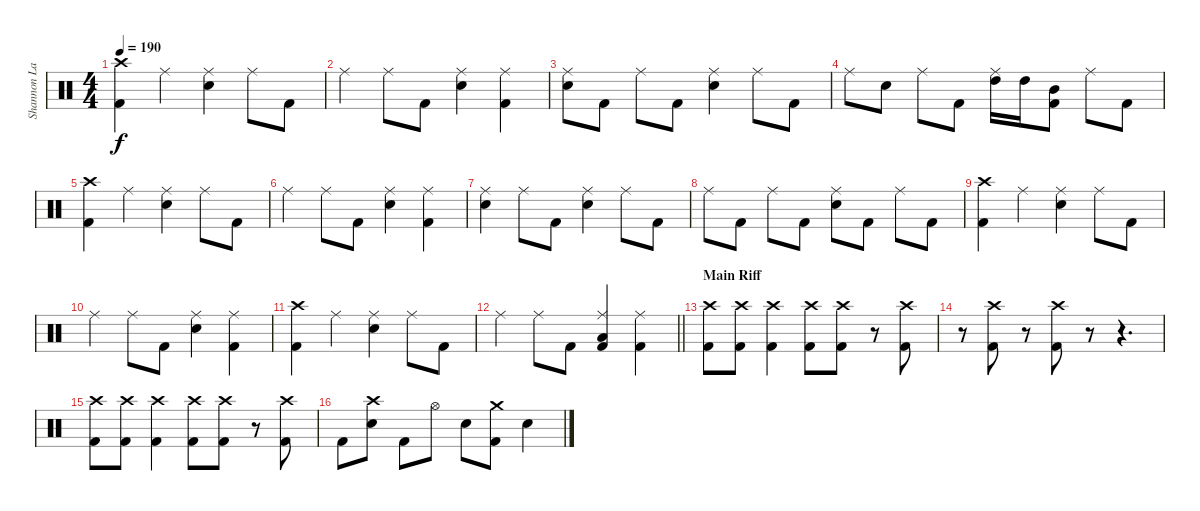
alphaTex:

\track ("Shannon Larkin" "Shannon La") {instrument percussion}
\staff {score}
\articulation defaults
\ts (4 4)
\tempo 190
\clef neutral
\ks c
("Crash high (hit)" "Kick (hit) 2").4{dy f} "Ride (middle)".4 ("Ride (middle)" "Snare (hit) 2").4 "Ride (middle)".8 "Kick (hit) 2".8 |
"Ride (middle)".4 "Ride (middle)".8 "Kick (hit) 2".8 ("Ride (middle)" "Snare (hit) 2").4 ("Ride (middle)" "Kick (hit) 2").4 |
("Ride (middle)" "Snare (hit) 2").8 "Kick (hit) 2".8 "Ride (middle)".8 "Kick (hit) 2".8 ("Ride (middle)" "Snare (hit) 2").4 "Ride (middle)".8 "Kick (hit) 2".8 |
"Ride (middle)".8 "Snare (hit) 2".8 "Ride (middle)".8 "Kick (hit) 2".8 ("Ride (middle)" "High Tom (hit)").16 "High Tom (hit)".16 ("Mid Tom (hit)" "Kick (hit) 2").8 "Ride (middle)".8 "Kick (hit) 2".8 |
("Crash high (hit)" "Kick (hit) 2").4 "Ride (middle)".4 ("Ride (middle)" "Snare (hit) 2").4 "Ride (middle)".8 "Kick (hit) 2".8 |
"Ride (middle)".4 "Ride (middle)".8 "Kick (hit) 2".8 ("Ride (middle)" "Snare (hit) 2").4 ("Ride (middle)" "Kick (hit) 2").4 |
("Ride (middle)" "Snare (hit) 2").4 "Ride (middle)".8 "Kick (hit) 2".8 ("Ride (middle)" "Snare (hit) 2").4 "Ride (middle)".8 "Kick (hit) 2".8 |
"Ride (middle)".8 "Kick (hit) 2".8 "Ride (middle)".8 "Kick (hit) 2".8 ("Ride (middle)" "Snare (hit) 2").8 "Kick (hit) 2".8 "Ride (middle)".8 "Kick (hit) 2".8 |
("Crash high (hit)" "Kick (hit) 2").4 "Ride (middle)".4 ("Ride (middle)" "Snare (hit) 2").4 "Ride (middle)".8 "Kick (hit) 2".8 |
"Ride (middle)".4 "Ride (middle)".8 "Kick (hit) 2".8 ("Ride (middle)" "Snare (hit) 2").4 ("Ride (middle)" "Kick (hit) 2").4 |
("Crash high (hit)" "Kick (hit) 2").4 "Ride (middle)".4 ("Ride (middle)" "Snare (hit) 2").4 "Ride (middle)".8 "Kick (hit) 2".8 |
\barLineRight lightlight "Ride (middle)".4 "Ride (middle)".8 "Kick (hit) 2".8
("Ride (middle)" "Low Tom (hit)" "Kick (hit) 2").4 ("Ride (middle)" "Kick (hit) 2").4 |
\section ("" "Main Riff")
("Crash high (hit)" "Kick (hit) 2").8 ("Crash high (hit)" "Kick (hit) 2").8 ("Crash high (hit)" "Kick (hit) 2").4 ("Crash high (hit)" "Kick (hit) 2").8 ("Crash high (hit)" "Kick (hit) 2").8 r.8 ("Crash high (hit)" "Kick (hit) 2").8 |
r.8 ("Crash high (hit)" "Kick (hit) 2").8 r.8 ("Crash high (hit)" "Kick (hit) 2").8 r.8 r.4{d} |
("Crash high (hit)" "Kick (hit) 2").8 ("Crash high (hit)" "Kick (hit) 2").8 ("Crash high (hit)" "Kick (hit) 2").4 ("Crash high (hit)" "Kick (hit) 2").8 ("Crash high (hit)" "Kick (hit) 2").8 r.8 ("Crash high (hit)" "Kick (hit) 2").8 |
"Kick (hit) 2".8 ("Crash high (hit)" "Snare (hit) 2").8 "Kick (hit) 2".8 "Hi-Hat (open)".8 "Snare (hit) 2".8 ("Crash medium (hit)" "Kick (hit) 2").8 "Snare (hit) 2".4
